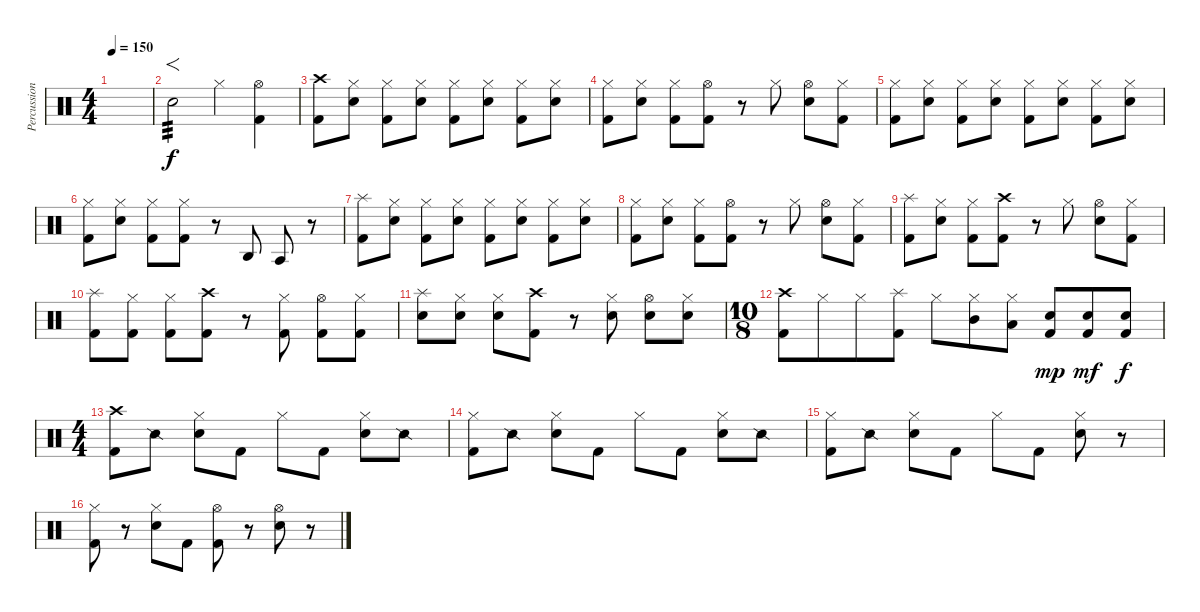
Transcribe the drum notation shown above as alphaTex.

\track ("Percussion" "Percussion") {instrument percussion}
\staff {score}
\articulation defaults
\ts (4 4)
\tempo 150
\clef neutral
\ks c
|
"Snare (hit) 2".2{f tp 3} "Hi-Hat (closed)".4 ("Hi-Hat (open)" "Kick (hit) 2").4 |
("Crash high (hit)" "Kick (hit) 2").8 ("Hi-Hat (closed)" "Snare (hit) 2").8 ("Hi-Hat (closed)" "Kick (hit) 2").8 ("Hi-Hat (closed)" "Snare (hit) 2").8 ("Hi-Hat (closed)" "Kick (hit) 2").8 ("Hi-Hat (closed)" "Snare (hit) 2").8 ("Hi-Hat (closed)" "Kick (hit) 2").8 ("Hi-Hat (closed)" "Snare (hit) 2").8 |
("Hi-Hat (closed)" "Kick (hit) 2").8 ("Hi-Hat (closed)" "Snare (hit) 2").8 ("Hi-Hat (closed)" "Kick (hit) 2").8 ("Hi-Hat (open)" "Kick (hit) 2").8 r.8 "Hi-Hat (closed)".8 ("Hi-Hat (open)" "Snare (hit) 2").8 ("Hi-Hat (closed)" "Kick (hit) 2").8 |
("Hi-Hat (closed)" "Kick (hit) 2").8 ("Hi-Hat (closed)" "Snare (hit) 2").8 ("Hi-Hat (closed)" "Kick (hit) 2").8 ("Hi-Hat (closed)" "Snare (hit) 2").8 ("Hi-Hat (closed)" "Kick (hit) 2").8 ("Hi-Hat (closed)" "Snare (hit) 2").8 ("Hi-Hat (closed)" "Kick (hit) 2").8 ("Hi-Hat (closed)" "Snare (hit) 2").8 |
("Hi-Hat (closed)" "Kick (hit) 2").8 ("Hi-Hat (closed)" "Snare (hit) 2").8 ("Hi-Hat (closed)" "Kick (hit) 2").8 ("Hi-Hat (closed)" "Kick (hit) 2").8 r.8 "Agogo high (hit)".8 "Agogo tow (hit)".8 r.8 |
("Splash (hit)" "Kick (hit) 2").8 ("Hi-Hat (closed)" "Snare (hit) 2").8 ("Hi-Hat (closed)" "Kick (hit) 2").8 ("Hi-Hat (closed)" "Snare (hit) 2").8 ("Hi-Hat (closed)" "Kick (hit) 2").8 ("Hi-Hat (closed)" "Snare (hit) 2").8 ("Hi-Hat (closed)" "Kick (hit) 2").8 ("Hi-Hat (closed)" "Snare (hit) 2").8 |
("Hi-Hat (closed)" "Kick (hit) 2").8 ("Hi-Hat (closed)" "Snare (hit) 2").8 ("Hi-Hat (closed)" "Kick (hit) 2").8 ("Hi-Hat (open)" "Kick (hit) 2").8 r.8 "Hi-Hat (closed)".8 ("Hi-Hat (open)" "Snare (hit) 2").8 ("Hi-Hat (closed)" "Kick (hit) 2").8 |
("Splash (hit)" "Kick (hit) 2").8 ("Hi-Hat (closed)" "Snare (hit) 2").8 ("Hi-Hat (closed)" "Kick (hit) 2").8 ("Crash high (hit)" "Kick (hit) 2").8 r.8 "Hi-Hat (closed)".8 ("Hi-Hat (open)" "Snare (hit) 2").8 ("Hi-Hat (closed)" "Kick (hit) 2").8 |
("Splash (hit)" "Kick (hit) 2").8 ("Hi-Hat (closed)" "Kick (hit) 2").8 ("Hi-Hat (closed)" "Kick (hit) 2").8 ("Crash high (hit)" "Kick (hit) 2").8 r.8 ("Hi-Hat (closed)" "Kick (hit) 2").8 ("Hi-Hat (open)" "Kick (hit) 2").8 ("Hi-Hat (closed)" "Kick (hit) 2").8 |
("Splash (hit)" "Snare (hit) 2").8 ("Hi-Hat (closed)" "Snare (hit) 2").8 ("Hi-Hat (closed)" "Snare (hit) 2").8 ("Crash high (hit)" "Kick (hit) 2").8 r.8 ("Hi-Hat (closed)" "Snare (hit) 2").8 ("Hi-Hat (open)" "Snare (hit) 2").8 ("Hi-Hat (closed)" "Snare (hit) 2").8 |
\ts (10 8)
("Crash high (hit)" "Kick (hit) 2").8 "Hi-Hat (closed)".8 "Hi-Hat (closed)".8 ("Splash (hit)" "Kick (hit) 2").8 "Hi-Hat (closed)".8 ("Hi-Hat (closed)" "Mid Tom (hit)").8 ("Hi-Hat (closed)" "Low Tom (hit)").8 ("Snare (hit) 2" "Kick (hit) 2").8{dy mp} ("Snare (hit) 2" "Kick (hit) 2").8{dy mf} ("Snare (hit) 2" "Kick (hit) 2").8{dy f} |
\ts (4 4)
("Crash high (hit)" "Kick (hit) 2").8 "Snare (side stick) 2".8 ("Hi-Hat (closed)" "Snare (hit) 2").8 "Kick (hit) 2".8 "Hi-Hat (closed)".8 "Kick (hit) 2".8 ("Hi-Hat (closed)" "Snare (hit) 2").8 "Snare (side stick) 2".8 |
("Hi-Hat (closed)" "Kick (hit) 2").8 "Snare (side stick) 2".8 ("Hi-Hat (closed)" "Snare (hit) 2").8 "Kick (hit) 2".8 "Hi-Hat (closed)".8 "Kick (hit) 2".8 ("Hi-Hat (closed)" "Snare (hit) 2").8 "Snare (side stick) 2".8 |
("Hi-Hat (closed)" "Kick (hit) 2").8 "Snare (side stick) 2".8 ("Hi-Hat (closed)" "Snare (hit) 2").8 "Kick (hit) 2".8 "Hi-Hat (closed)".8 "Kick (hit) 2".8 ("Hi-Hat (closed)" "Snare (hit) 2").8 r.8 |
("Hi-Hat (closed)" "Kick (hit) 2").8 r.8 ("Hi-Hat (closed)" "Snare (hit) 2").8 "Kick (hit) 2".8 ("Hi-Hat (open)" "Kick (hit) 2").8 r.8 ("Hi-Hat (open)" "Snare (hit) 2").8 r.8
